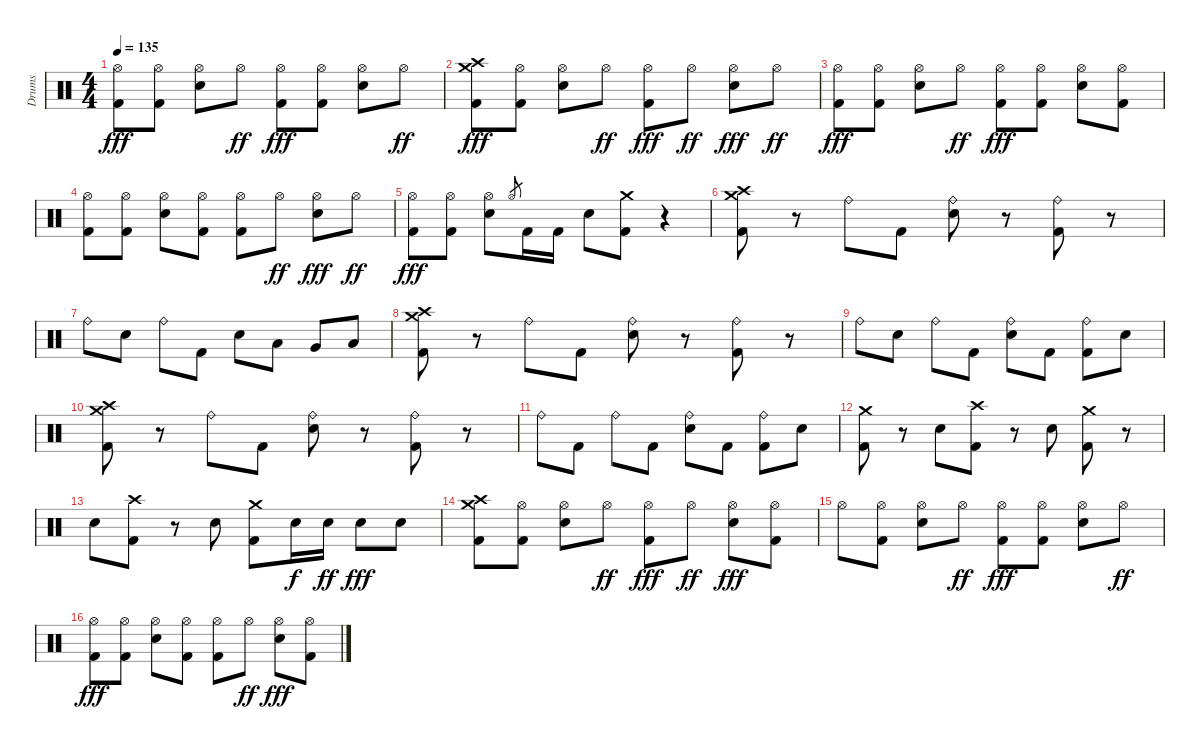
\track ("Drums" "Drums") {instrument percussion}
\staff {score}
\articulation defaults
\ts (4 4)
\tempo 135
\clef neutral
\ks c
("Hi-Hat (open)" "Kick (hit) 2").8{dy fff} ("Hi-Hat (open)" "Kick (hit) 2").8 ("Hi-Hat (open)" "Snare (hit) 2").8 "Hi-Hat (open)".8{dy ff} ("Hi-Hat (open)" "Kick (hit) 2").8{dy fff} ("Hi-Hat (open)" "Kick (hit) 2").8 ("Hi-Hat (open)" "Snare (hit) 2").8 "Hi-Hat (open)".8{dy ff} |
("Crash high (hit)" "Crash medium (hit)" "Kick (hit) 2").8{dy fff} ("Hi-Hat (open)" "Kick (hit) 2").8 ("Hi-Hat (open)" "Snare (hit) 2").8 "Hi-Hat (open)".8{dy ff} ("Hi-Hat (open)" "Kick (hit) 2").8{dy fff} "Hi-Hat (open)".8{dy ff} ("Hi-Hat (open)" "Snare (hit) 2").8{dy fff} "Hi-Hat (open)".8{dy ff} |
("Hi-Hat (open)" "Kick (hit) 2").8{dy fff} ("Hi-Hat (open)" "Kick (hit) 2").8 ("Hi-Hat (open)" "Snare (hit) 2").8 "Hi-Hat (open)".8{dy ff} ("Hi-Hat (open)" "Kick (hit) 2").8{dy fff} ("Hi-Hat (open)" "Kick (hit) 2").8 ("Hi-Hat (open)" "Snare (hit) 2").8 ("Hi-Hat (open)" "Kick (hit) 2").8 |
("Hi-Hat (open)" "Kick (hit) 2").8 ("Hi-Hat (open)" "Kick (hit) 2").8 ("Hi-Hat (open)" "Snare (hit) 2").8 ("Hi-Hat (open)" "Kick (hit) 2").8 ("Hi-Hat (open)" "Kick (hit) 2").8 "Hi-Hat (open)".8{dy ff} ("Hi-Hat (open)" "Snare (hit) 2").8{dy fff} "Hi-Hat (open)".8{dy ff} |
("Hi-Hat (open)" "Kick (hit) 2").8{dy fff} ("Hi-Hat (open)" "Kick (hit) 2").8 ("Hi-Hat (open)" "Snare (hit) 2").8 "Hi-Hat (open)".8{gr} "Kick (hit) 2".16 "Kick (hit) 2".16 "Snare (hit) 2".8 ("Kick (hit) 2" "Crash medium (hit)").8 r.4 |
("Kick (hit) 2" "Crash high (hit)" "Crash medium (hit)").8 r.8 "Ride (bell)".8 "Kick (hit) 2".8 ("Ride (bell)" "Snare (hit) 2").8 r.8 ("Ride (bell)" "Kick (hit) 2").8 r.8 |
"Ride (bell)".8 "Snare (hit) 2".8 "Ride (bell)".8 "Kick (hit) 2".8 "Snare (hit) 2".8 "Low Tom (hit)".8 "Very Low Tom (hit)".8 "Low Floor Tom (hit)".8 |
("Kick (hit) 2" "Crash high (hit)" "Crash medium (hit)").8 r.8 "Ride (bell)".8 "Kick (hit) 2".8 ("Ride (bell)" "Snare (hit) 2").8 r.8 ("Ride (bell)" "Kick (hit) 2").8 r.8 |
"Ride (bell)".8 "Snare (hit) 2".8 "Ride (bell)".8 "Kick (hit) 2".8 ("Ride (bell)" "Snare (hit) 2").8 "Kick (hit) 2".8 ("Ride (bell)" "Kick (hit) 2").8 "Snare (hit) 2".8 |
("Kick (hit) 2" "Crash high (hit)" "Crash medium (hit)").8 r.8 "Ride (bell)".8 "Kick (hit) 2".8 ("Ride (bell)" "Snare (hit) 2").8 r.8 ("Ride (bell)" "Kick (hit) 2").8 r.8 |
"Ride (bell)".8 "Kick (hit) 2".8 "Ride (bell)".8 "Kick (hit) 2".8 ("Ride (bell)" "Snare (hit) 2").8 "Kick (hit) 2".8 ("Ride (bell)" "Kick (hit) 2").8 "Snare (hit) 2".8 |
("Kick (hit) 2" "Crash medium (hit)").8 r.8 "Snare (hit) 2".8 ("Crash high (hit)" "Kick (hit) 2").8 r.8 "Snare (hit) 2".8 ("Crash medium (hit)" "Kick (hit) 2").8 r.8 |
"Snare (hit) 2".8 ("Crash high (hit)" "Kick (hit) 2").8 r.8 "Snare (hit) 2".8 ("Crash medium (hit)" "Kick (hit) 2").8 "Snare (hit) 2".16{dy f} "Snare (hit) 2".16{dy ff} "Snare (hit) 2".8{dy fff} "Snare (hit) 2".8 |
("Crash high (hit)" "Crash medium (hit)" "Kick (hit) 2").8 ("Hi-Hat (open)" "Kick (hit) 2").8 ("Hi-Hat (open)" "Snare (hit) 2").8 "Hi-Hat (open)".8{dy ff} ("Hi-Hat (open)" "Kick (hit) 2").8{dy fff} "Hi-Hat (open)".8{dy ff} ("Hi-Hat (open)" "Snare (hit) 2").8{dy fff} ("Hi-Hat (open)" "Kick (hit) 2").8 |
"Hi-Hat (open)".8 ("Hi-Hat (open)" "Kick (hit) 2").8 ("Hi-Hat (open)" "Snare (hit) 2").8 "Hi-Hat (open)".8{dy ff} ("Hi-Hat (open)" "Kick (hit) 2").8{dy fff} ("Hi-Hat (open)" "Kick (hit) 2").8 ("Hi-Hat (open)" "Snare (hit) 2").8 "Hi-Hat (open)".8{dy ff} |
("Hi-Hat (open)" "Kick (hit) 2").8{dy fff} ("Hi-Hat (open)" "Kick (hit) 2").8 ("Hi-Hat (open)" "Snare (hit) 2").8 ("Hi-Hat (open)" "Kick (hit) 2").8 ("Hi-Hat (open)" "Kick (hit) 2").8 "Hi-Hat (open)".8{dy ff} ("Hi-Hat (open)" "Snare (hit) 2").8{dy fff} ("Hi-Hat (open)" "Kick (hit) 2").8
